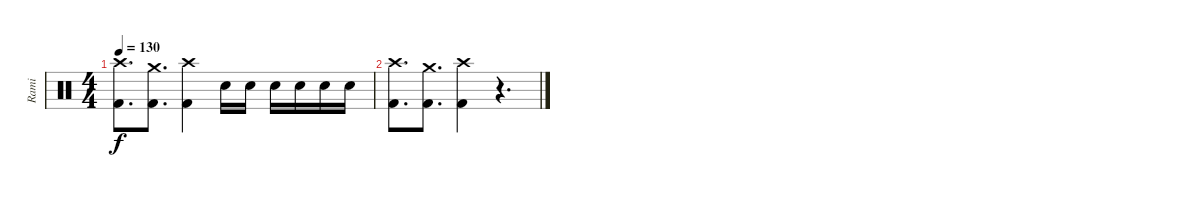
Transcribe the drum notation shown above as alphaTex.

\track ("Rami" "Rami") {instrument percussion}
\staff {score}
\articulation defaults
\ts (4 4)
\tempo 130
\clef neutral
\ks c
("Crash high (hit)" "Kick (hit) 2").8{d dy f} ("Crash medium (hit)" "Kick (hit) 2").8{d} ("Crash high (hit)" "Kick (hit) 2").4 "Electric Snare (hit)".16 "Electric Snare (hit)".16 "Electric Snare (hit)".16 "Electric Snare (hit)".16 "Electric Snare (hit)".16 "Electric Snare (hit)".16 |
("Crash high (hit)" "Kick (hit) 2").8{d} ("Crash medium (hit)" "Kick (hit) 2").8{d} ("Crash high (hit)" "Kick (hit) 2").4 r.4{d}
